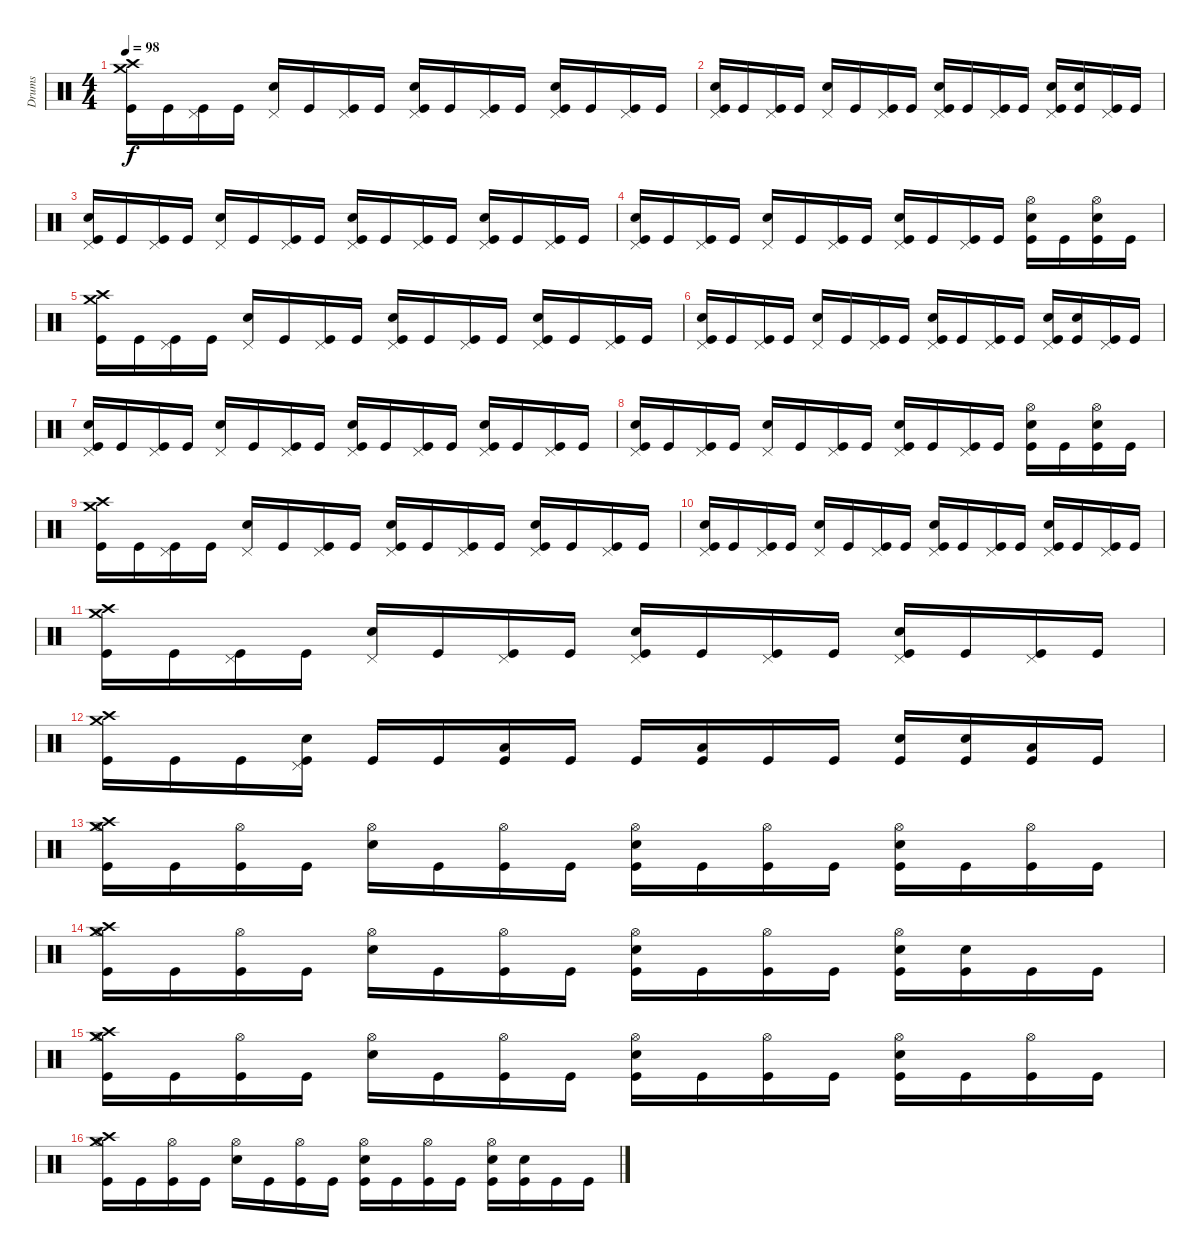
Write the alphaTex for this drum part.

\track ("Drums" "Drums") {instrument percussion}
\staff {score}
\articulation defaults
\ts (4 4)
\tempo 98
\clef neutral
\ks c
("Crash high (hit)" "Crash medium (hit)" "Kick (hit)").16{dy f} "Kick (hit)".16 ("Pedal Hi-Hat (hit)" "Kick (hit)").16 "Kick (hit)".16 ("Pedal Hi-Hat (hit)" "Electric Snare (hit)").16 "Kick (hit)".16 ("Pedal Hi-Hat (hit)" "Kick (hit)").16 "Kick (hit)".16 ("Electric Snare (hit)" "Pedal Hi-Hat (hit)" "Kick (hit)").16 "Kick (hit)".16 ("Pedal Hi-Hat (hit)" "Kick (hit)").16 "Kick (hit)".16 ("Electric Snare (hit)" "Pedal Hi-Hat (hit)" "Kick (hit)").16 "Kick (hit)".16 ("Pedal Hi-Hat (hit)" "Kick (hit)").16 "Kick (hit)".16 |
("Electric Snare (hit)" "Pedal Hi-Hat (hit)" "Kick (hit)").16 "Kick (hit)".16 ("Pedal Hi-Hat (hit)" "Kick (hit)").16 "Kick (hit)".16 ("Pedal Hi-Hat (hit)" "Electric Snare (hit)").16 "Kick (hit)".16 ("Pedal Hi-Hat (hit)" "Kick (hit)").16 "Kick (hit)".16 ("Electric Snare (hit)" "Pedal Hi-Hat (hit)" "Kick (hit)").16 "Kick (hit)".16 ("Pedal Hi-Hat (hit)" "Kick (hit)").16 "Kick (hit)".16 ("Electric Snare (hit)" "Pedal Hi-Hat (hit)" "Kick (hit)").16 ("Electric Snare (hit)" "Kick (hit)").16 ("Pedal Hi-Hat (hit)" "Kick (hit)").16 "Kick (hit)".16 |
("Pedal Hi-Hat (hit)" "Electric Snare (hit)" "Kick (hit)").16 "Kick (hit)".16 ("Pedal Hi-Hat (hit)" "Kick (hit)").16 "Kick (hit)".16 ("Pedal Hi-Hat (hit)" "Electric Snare (hit)").16 "Kick (hit)".16 ("Pedal Hi-Hat (hit)" "Kick (hit)").16 "Kick (hit)".16 ("Electric Snare (hit)" "Pedal Hi-Hat (hit)" "Kick (hit)").16 "Kick (hit)".16 ("Pedal Hi-Hat (hit)" "Kick (hit)").16 "Kick (hit)".16 ("Electric Snare (hit)" "Pedal Hi-Hat (hit)" "Kick (hit)").16 "Kick (hit)".16 ("Pedal Hi-Hat (hit)" "Kick (hit)").16 "Kick (hit)".16 |
("Electric Snare (hit)" "Pedal Hi-Hat (hit)" "Kick (hit)").16 "Kick (hit)".16 ("Pedal Hi-Hat (hit)" "Kick (hit)").16 "Kick (hit)".16 ("Pedal Hi-Hat (hit)" "Electric Snare (hit)").16 "Kick (hit)".16 ("Pedal Hi-Hat (hit)" "Kick (hit)").16 "Kick (hit)".16 ("Electric Snare (hit)" "Pedal Hi-Hat (hit)" "Kick (hit)").16 "Kick (hit)".16 ("Pedal Hi-Hat (hit)" "Kick (hit)").16 "Kick (hit)".16 ("Electric Snare (hit)" "Hi-Hat (open)" "Kick (hit)").16 "Kick (hit)".16 ("Hi-Hat (open)" "Electric Snare (hit)" "Kick (hit)").16 "Kick (hit)".16 |
("Crash high (hit)" "Crash medium (hit)" "Kick (hit)").16 "Kick (hit)".16 ("Pedal Hi-Hat (hit)" "Kick (hit)").16 "Kick (hit)".16 ("Pedal Hi-Hat (hit)" "Electric Snare (hit)").16 "Kick (hit)".16 ("Pedal Hi-Hat (hit)" "Kick (hit)").16 "Kick (hit)".16 ("Electric Snare (hit)" "Pedal Hi-Hat (hit)" "Kick (hit)").16 "Kick (hit)".16 ("Pedal Hi-Hat (hit)" "Kick (hit)").16 "Kick (hit)".16 ("Electric Snare (hit)" "Pedal Hi-Hat (hit)" "Kick (hit)").16 "Kick (hit)".16 ("Pedal Hi-Hat (hit)" "Kick (hit)").16 "Kick (hit)".16 |
("Electric Snare (hit)" "Pedal Hi-Hat (hit)" "Kick (hit)").16 "Kick (hit)".16 ("Pedal Hi-Hat (hit)" "Kick (hit)").16 "Kick (hit)".16 ("Pedal Hi-Hat (hit)" "Electric Snare (hit)").16 "Kick (hit)".16 ("Pedal Hi-Hat (hit)" "Kick (hit)").16 "Kick (hit)".16 ("Electric Snare (hit)" "Pedal Hi-Hat (hit)" "Kick (hit)").16 "Kick (hit)".16 ("Pedal Hi-Hat (hit)" "Kick (hit)").16 "Kick (hit)".16 ("Electric Snare (hit)" "Pedal Hi-Hat (hit)" "Kick (hit)").16 ("Electric Snare (hit)" "Kick (hit)").16 ("Pedal Hi-Hat (hit)" "Kick (hit)").16 "Kick (hit)".16 |
("Pedal Hi-Hat (hit)" "Electric Snare (hit)" "Kick (hit)").16 "Kick (hit)".16 ("Pedal Hi-Hat (hit)" "Kick (hit)").16 "Kick (hit)".16 ("Pedal Hi-Hat (hit)" "Electric Snare (hit)").16 "Kick (hit)".16 ("Pedal Hi-Hat (hit)" "Kick (hit)").16 "Kick (hit)".16 ("Electric Snare (hit)" "Pedal Hi-Hat (hit)" "Kick (hit)").16 "Kick (hit)".16 ("Pedal Hi-Hat (hit)" "Kick (hit)").16 "Kick (hit)".16 ("Electric Snare (hit)" "Pedal Hi-Hat (hit)" "Kick (hit)").16 "Kick (hit)".16 ("Pedal Hi-Hat (hit)" "Kick (hit)").16 "Kick (hit)".16 |
("Electric Snare (hit)" "Pedal Hi-Hat (hit)" "Kick (hit)").16 "Kick (hit)".16 ("Pedal Hi-Hat (hit)" "Kick (hit)").16 "Kick (hit)".16 ("Pedal Hi-Hat (hit)" "Electric Snare (hit)").16 "Kick (hit)".16 ("Pedal Hi-Hat (hit)" "Kick (hit)").16 "Kick (hit)".16 ("Electric Snare (hit)" "Pedal Hi-Hat (hit)" "Kick (hit)").16 "Kick (hit)".16 ("Pedal Hi-Hat (hit)" "Kick (hit)").16 "Kick (hit)".16 ("Electric Snare (hit)" "Hi-Hat (open)" "Kick (hit)").16 "Kick (hit)".16 ("Hi-Hat (open)" "Electric Snare (hit)" "Kick (hit)").16 "Kick (hit)".16 |
("Crash high (hit)" "Crash medium (hit)" "Kick (hit)").16 "Kick (hit)".16 ("Pedal Hi-Hat (hit)" "Kick (hit)").16 "Kick (hit)".16 ("Pedal Hi-Hat (hit)" "Electric Snare (hit)").16 "Kick (hit)".16 ("Pedal Hi-Hat (hit)" "Kick (hit)").16 "Kick (hit)".16 ("Electric Snare (hit)" "Pedal Hi-Hat (hit)" "Kick (hit)").16 "Kick (hit)".16 ("Pedal Hi-Hat (hit)" "Kick (hit)").16 "Kick (hit)".16 ("Electric Snare (hit)" "Pedal Hi-Hat (hit)" "Kick (hit)").16 "Kick (hit)".16 ("Pedal Hi-Hat (hit)" "Kick (hit)").16 "Kick (hit)".16 |
("Pedal Hi-Hat (hit)" "Electric Snare (hit)" "Kick (hit)").16 "Kick (hit)".16 ("Pedal Hi-Hat (hit)" "Kick (hit)").16 "Kick (hit)".16 ("Pedal Hi-Hat (hit)" "Electric Snare (hit)").16 "Kick (hit)".16 ("Pedal Hi-Hat (hit)" "Kick (hit)").16 "Kick (hit)".16 ("Electric Snare (hit)" "Pedal Hi-Hat (hit)" "Kick (hit)").16 "Kick (hit)".16 ("Pedal Hi-Hat (hit)" "Kick (hit)").16 "Kick (hit)".16 ("Electric Snare (hit)" "Pedal Hi-Hat (hit)" "Kick (hit)").16 "Kick (hit)".16 ("Pedal Hi-Hat (hit)" "Kick (hit)").16 "Kick (hit)".16 |
("Crash high (hit)" "Crash medium (hit)" "Kick (hit)").16 "Kick (hit)".16 ("Pedal Hi-Hat (hit)" "Kick (hit)").16 "Kick (hit)".16 ("Pedal Hi-Hat (hit)" "Electric Snare (hit)").16 "Kick (hit)".16 ("Pedal Hi-Hat (hit)" "Kick (hit)").16 "Kick (hit)".16 ("Electric Snare (hit)" "Pedal Hi-Hat (hit)" "Kick (hit)").16 "Kick (hit)".16 ("Pedal Hi-Hat (hit)" "Kick (hit)").16 "Kick (hit)".16 ("Electric Snare (hit)" "Pedal Hi-Hat (hit)" "Kick (hit)").16 "Kick (hit)".16 ("Pedal Hi-Hat (hit)" "Kick (hit)").16 "Kick (hit)".16 |
("Crash high (hit)" "Crash medium (hit)" "Kick (hit)").16 "Kick (hit)".16 "Kick (hit)".16 ("Pedal Hi-Hat (hit)" "Electric Snare (hit)" "Kick (hit)").16 "Kick (hit)".16 "Kick (hit)".16 ("Low Floor Tom (hit)" "Kick (hit)").16 "Kick (hit)".16 "Kick (hit)".16 ("Low Floor Tom (hit)" "Kick (hit)").16 "Kick (hit)".16 "Kick (hit)".16 ("Electric Snare (hit)" "Kick (hit)").16 ("Electric Snare (hit)" "Kick (hit)").16 ("Low Floor Tom (hit)" "Kick (hit)").16 "Kick (hit)".16 |
("Crash high (hit)" "Crash medium (hit)" "Kick (hit)" "Hi-Hat (open)").16 "Kick (hit)".16 ("Hi-Hat (open)" "Kick (hit)").16 "Kick (hit)".16 ("Hi-Hat (open)" "Electric Snare (hit)").16 "Kick (hit)".16 ("Hi-Hat (open)" "Kick (hit)").16 "Kick (hit)".16 ("Electric Snare (hit)" "Hi-Hat (open)" "Kick (hit)").16 "Kick (hit)".16 ("Hi-Hat (open)" "Kick (hit)").16 "Kick (hit)".16 ("Electric Snare (hit)" "Hi-Hat (open)" "Kick (hit)").16 "Kick (hit)".16 ("Hi-Hat (open)" "Kick (hit)").16 "Kick (hit)".16 |
("Hi-Hat (open)" "Crash high (hit)" "Crash medium (hit)" "Kick (hit)").16{volume 11} "Kick (hit)".16 ("Hi-Hat (open)" "Kick (hit)").16 "Kick (hit)".16 ("Hi-Hat (open)" "Electric Snare (hit)").16 "Kick (hit)".16 ("Hi-Hat (open)" "Kick (hit)").16 "Kick (hit)".16 ("Electric Snare (hit)" "Hi-Hat (open)" "Kick (hit)").16 "Kick (hit)".16 ("Hi-Hat (open)" "Kick (hit)").16 "Kick (hit)".16 ("Electric Snare (hit)" "Hi-Hat (open)" "Kick (hit)").16 ("Electric Snare (hit)" "Kick (hit)").16 "Kick (hit)".16 "Kick (hit)".16 |
("Crash high (hit)" "Crash medium (hit)" "Kick (hit)" "Hi-Hat (open)").16{volume 10} "Kick (hit)".16 ("Hi-Hat (open)" "Kick (hit)").16 "Kick (hit)".16 ("Hi-Hat (open)" "Electric Snare (hit)").16 "Kick (hit)".16 ("Hi-Hat (open)" "Kick (hit)").16 "Kick (hit)".16 ("Electric Snare (hit)" "Hi-Hat (open)" "Kick (hit)").16 "Kick (hit)".16 ("Hi-Hat (open)" "Kick (hit)").16 "Kick (hit)".16 ("Electric Snare (hit)" "Hi-Hat (open)" "Kick (hit)").16 "Kick (hit)".16 ("Hi-Hat (open)" "Kick (hit)").16 "Kick (hit)".16 |
("Hi-Hat (open)" "Crash high (hit)" "Crash medium (hit)" "Kick (hit)").16{volume 9} "Kick (hit)".16 ("Hi-Hat (open)" "Kick (hit)").16 "Kick (hit)".16 ("Hi-Hat (open)" "Electric Snare (hit)").16 "Kick (hit)".16 ("Hi-Hat (open)" "Kick (hit)").16 "Kick (hit)".16 ("Electric Snare (hit)" "Hi-Hat (open)" "Kick (hit)").16 "Kick (hit)".16 ("Hi-Hat (open)" "Kick (hit)").16 "Kick (hit)".16 ("Electric Snare (hit)" "Hi-Hat (open)" "Kick (hit)").16 ("Electric Snare (hit)" "Kick (hit)").16 "Kick (hit)".16 "Kick (hit)".16
